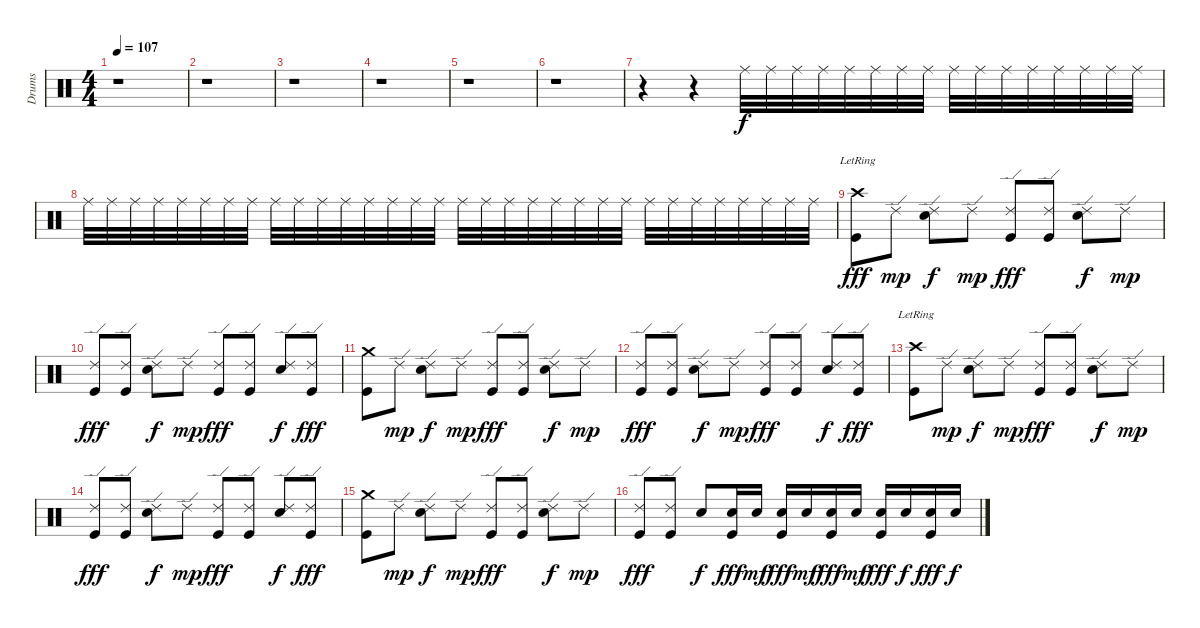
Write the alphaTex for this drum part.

\track ("Drums" "Drums") {instrument percussion}
\staff {score}
\articulation defaults
\ts (4 4)
\tempo 107
\clef neutral
\ks c
r.1{dy f} |
r.1 |
r.1 |
r.1 |
r.1 |
r.1 |
r.4 r.4{volume 2} "Ride (middle)".32{volume 16} "Ride (middle)".32 "Ride (middle)".32 "Ride (middle)".32 "Ride (middle)".32 "Ride (middle)".32 "Ride (middle)".32 "Ride (middle)".32 "Ride (middle)".32 "Ride (middle)".32 "Ride (middle)".32 "Ride (middle)".32 "Ride (middle)".32 "Ride (middle)".32 "Ride (middle)".32 "Ride (middle)".32 |
"Ride (middle)".32 "Ride (middle)".32 "Ride (middle)".32 "Ride (middle)".32 "Ride (middle)".32 "Ride (middle)".32 "Ride (middle)".32 "Ride (middle)".32 "Ride (middle)".32 "Ride (middle)".32 "Ride (middle)".32 "Ride (middle)".32 "Ride (middle)".32 "Ride (middle)".32 "Ride (middle)".32 "Ride (middle)".32 "Ride (middle)".32 "Ride (middle)".32 "Ride (middle)".32 "Ride (middle)".32 "Ride (middle)".32 "Ride (middle)".32 "Ride (middle)".32 "Ride (middle)".32 "Ride (middle)".32 "Ride (middle)".32 "Ride (middle)".32 "Ride (middle)".32 "Ride (middle)".32 "Ride (middle)".32 "Ride (middle)".32 "Ride (middle)".32 |
("Crash high (hit)"{lr} "Kick (hit)").8{dy fff volume 16} "Ride (edge) 2".8{dy mp} ("Ride (edge) 2" "Electric Snare (hit)").8{dy f} "Ride (edge) 2".8{dy mp} ("Ride (edge) 2" "Kick (hit)").8{dy fff} ("Ride (edge) 2" "Kick (hit)").8 ("Ride (edge) 2" "Electric Snare (hit)").8{dy f} "Ride (edge) 2".8{dy mp} |
("Ride (edge) 2" "Kick (hit)").8{dy fff} ("Ride (edge) 2" "Kick (hit)").8 ("Ride (edge) 2" "Electric Snare (hit)").8{dy f} "Ride (edge) 2".8{dy mp} ("Ride (edge) 2" "Kick (hit)").8{dy fff} ("Ride (edge) 2" "Kick (hit)").8 ("Ride (edge) 2" "Electric Snare (hit)").8{dy f} ("Ride (edge) 2" "Kick (hit)").8{dy fff} |
("Crash medium (hit)" "Kick (hit)").8 "Ride (edge) 2".8{dy mp} ("Ride (edge) 2" "Electric Snare (hit)").8{dy f} "Ride (edge) 2".8{dy mp} ("Ride (edge) 2" "Kick (hit)").8{dy fff} ("Ride (edge) 2" "Kick (hit)").8 ("Ride (edge) 2" "Electric Snare (hit)").8{dy f} "Ride (edge) 2".8{dy mp} |
("Ride (edge) 2" "Kick (hit)").8{dy fff} ("Ride (edge) 2" "Kick (hit)").8 ("Ride (edge) 2" "Electric Snare (hit)").8{dy f} "Ride (edge) 2".8{dy mp} ("Ride (edge) 2" "Kick (hit)").8{dy fff} ("Ride (edge) 2" "Kick (hit)").8 ("Ride (edge) 2" "Electric Snare (hit)").8{dy f} ("Ride (edge) 2" "Kick (hit)").8{dy fff} |
("Crash high (hit)"{lr} "Kick (hit)").8 "Ride (edge) 2".8{dy mp} ("Ride (edge) 2" "Electric Snare (hit)").8{dy f} "Ride (edge) 2".8{dy mp} ("Ride (edge) 2" "Kick (hit)").8{dy fff} ("Ride (edge) 2" "Kick (hit)").8 ("Ride (edge) 2" "Electric Snare (hit)").8{dy f} "Ride (edge) 2".8{dy mp} |
("Ride (edge) 2" "Kick (hit)").8{dy fff} ("Ride (edge) 2" "Kick (hit)").8 ("Ride (edge) 2" "Electric Snare (hit)").8{dy f} "Ride (edge) 2".8{dy mp} ("Ride (edge) 2" "Kick (hit)").8{dy fff} ("Ride (edge) 2" "Kick (hit)").8 ("Ride (edge) 2" "Electric Snare (hit)").8{dy f} ("Ride (edge) 2" "Kick (hit)").8{dy fff} |
("Crash medium (hit)" "Kick (hit)").8 "Ride (edge) 2".8{dy mp} ("Ride (edge) 2" "Electric Snare (hit)").8{dy f} "Ride (edge) 2".8{dy mp} ("Ride (edge) 2" "Kick (hit)").8{dy fff} ("Ride (edge) 2" "Kick (hit)").8 ("Ride (edge) 2" "Electric Snare (hit)").8{dy f} "Ride (edge) 2".8{dy mp} |
("Ride (edge) 2" "Kick (hit)").8{dy fff} ("Ride (edge) 2" "Kick (hit)").8 "Electric Snare (hit)".8{dy f} ("Electric Snare (hit)" "Kick (hit)").16{dy fff} "Electric Snare (hit)".16{dy mf} ("Electric Snare (hit)" "Kick (hit)").16{dy fff} "Electric Snare (hit)".16{dy mf} ("Electric Snare (hit)" "Kick (hit)").16{dy fff} "Electric Snare (hit)".16{dy mf} ("Electric Snare (hit)" "Kick (hit)").16{dy fff} "Electric Snare (hit)".16{dy f} ("Electric Snare (hit)" "Kick (hit)").16{dy fff} "Electric Snare (hit)".16{dy f}
